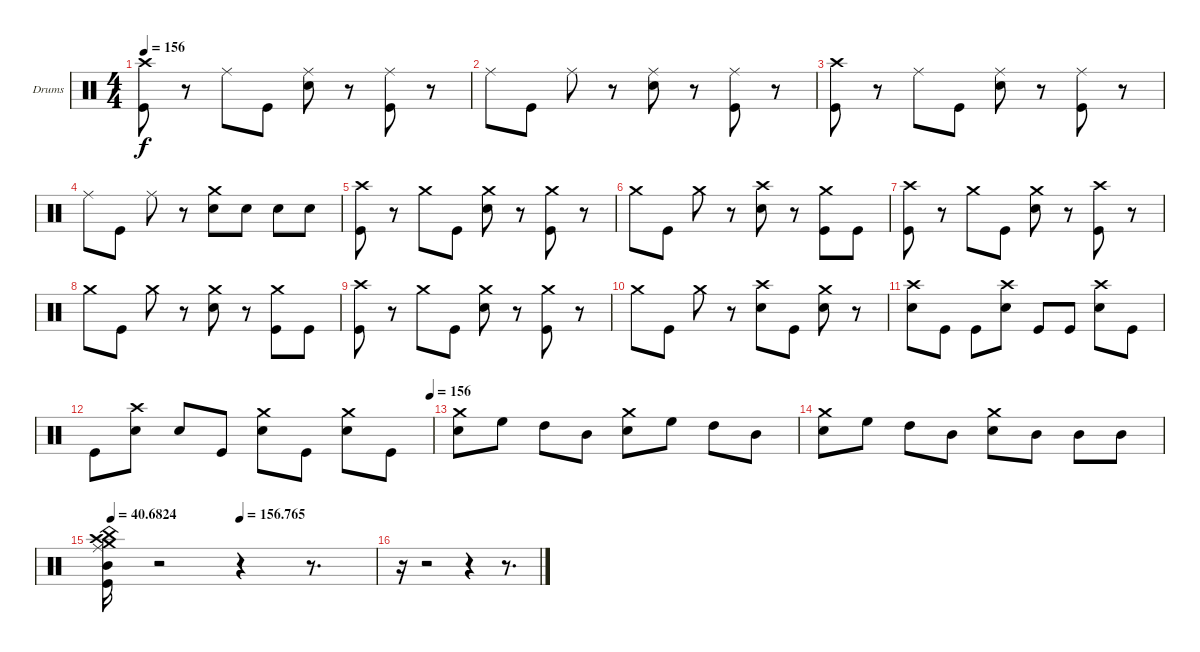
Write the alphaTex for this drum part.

\defaultSystemsLayout 4
\bracketExtendMode groupsimilarinstruments
\firstSystemTrackNameOrientation horizontal
\otherSystemsTrackNameOrientation horizontal
\track ("Anton Kubrak" "Drums") {instrument percussion}
\staff {score}
\articulation defaults
\ts (4 4)
\tempo 156
\clef neutral
\scale
0.333333
\ks c
("Crash high (hit)" "Kick (hit)").8{dy f} r.8 "Ride (middle)".8 "Kick (hit)".8 ("Ride (middle)" "Snare (hit) 2").8 r.8 ("Ride (middle)" "Kick (hit)").8 r.8 |
\scale
0.333333 "Ride (middle)".8 "Kick (hit)".8 "Ride (middle)".8 r.8 ("Ride (middle)" "Snare (hit) 2").8 r.8 ("Ride (middle)" "Kick (hit)").8 r.8 |
\scale
0.333333 ("Crash high (hit)" "Kick (hit)").8 r.8 "Ride (middle)".8 "Kick (hit)".8 ("Ride (middle)" "Snare (hit) 2").8 r.8 ("Ride (middle)" "Kick (hit)").8 r.8 |
\scale
0.333333 "Ride (middle)".8 "Kick (hit)".8 "Ride (middle)".8 r.8 ("Crash medium (hit)" "Snare (hit) 2").8 "Snare (hit) 2".8 "Snare (hit) 2".8 "Snare (hit) 2".8 |
\scale
0.333333 ("Crash high (hit)" "Kick (hit)").8 r.8 "Crash medium (hit)".8 "Kick (hit)".8 ("Crash medium (hit)" "Snare (hit) 2").8 r.8 ("Crash medium (hit)" "Kick (hit)").8 r.8 |
\scale
0.333333 "Crash medium (hit)".8 "Kick (hit)".8 "Crash medium (hit)".8 r.8 ("Crash high (hit)" "Snare (hit) 2").8 r.8 ("Crash medium (hit)" "Kick (hit)").8 "Kick (hit)".8 |
\scale
0.333333 ("Crash high (hit)" "Kick (hit)").8 r.8 "Crash medium (hit)".8 "Kick (hit)".8 ("Crash medium (hit)" "Snare (hit) 2").8 r.8 ("Crash high (hit)" "Kick (hit)").8 r.8 |
\scale
0.333333 "Crash medium (hit)".8 "Kick (hit)".8 "Crash medium (hit)".8 r.8 ("Crash medium (hit)" "Snare (hit) 2").8 r.8 ("Crash medium (hit)" "Kick (hit)").8 "Kick (hit)".8 |
\scale
0.333333 ("Crash high (hit)" "Kick (hit)").8 r.8 "Crash medium (hit)".8 "Kick (hit)".8 ("Crash medium (hit)" "Snare (hit) 2").8 r.8 ("Crash medium (hit)" "Kick (hit)").8 r.8 |
\scale
0.333333 "Crash medium (hit)".8 "Kick (hit)".8 "Crash medium (hit)".8 r.8 ("Crash high (hit)" "Snare (hit) 2").8 "Kick (hit)".8 ("Crash medium (hit)" "Snare (hit) 2").8 r.8 |
\scale
0.333333 ("Crash high (hit)" "Snare (hit) 2").8 "Kick (hit)".8 "Kick (hit)".8 ("Crash high (hit)" "Snare (hit) 2").8 "Kick (hit)".8 "Kick (hit)".8 ("Crash high (hit)" "Snare (hit) 2").8 "Kick (hit)".8 |
\tempo (156 0.99375)
\scale
0.333333 "Kick (hit)".8 ("Crash high (hit)" "Snare (hit) 2").8 "Snare (hit) 2".8 "Kick (hit)".8 ("Crash medium (hit)" "Snare (hit) 2").8 "Kick (hit)".8 ("Crash medium (hit)" "Snare (hit) 2").8 "Kick (hit)".8 |
\scale
0.333333 ("Crash medium (hit)" "Snare (hit) 2").8 "High Floor Tom (hit)".8 "High Tom (hit)".8 "Mid Tom (hit)".8 ("Crash medium (hit)" "Snare (hit) 2").8 "High Floor Tom (hit)".8 "High Tom (hit)".8 "Mid Tom (hit)".8 |
\scale
0.333333 ("Crash medium (hit)" "Snare (hit) 2").8 "High Floor Tom (hit)".8 "High Tom (hit)".8 "Mid Tom (hit)".8 ("Crash medium (hit)" "Snare (hit) 2").8 "Mid Tom (hit)".8 "Mid Tom (hit)".8 "Mid Tom (hit)".8 |
\tempo (40.6824 0.025)
\tempo (156.765 0.5)
\scale
0.333333 ("Crash medium (hit)" "Crash high (hit)" "Mid Tom (hit)" "China (hit)" "Kick (hit)" "Ride (middle)").16 r.2 r.4 r.8{d} |
\scale
0.333333 r.16 r.2 r.4 r.8{d}
